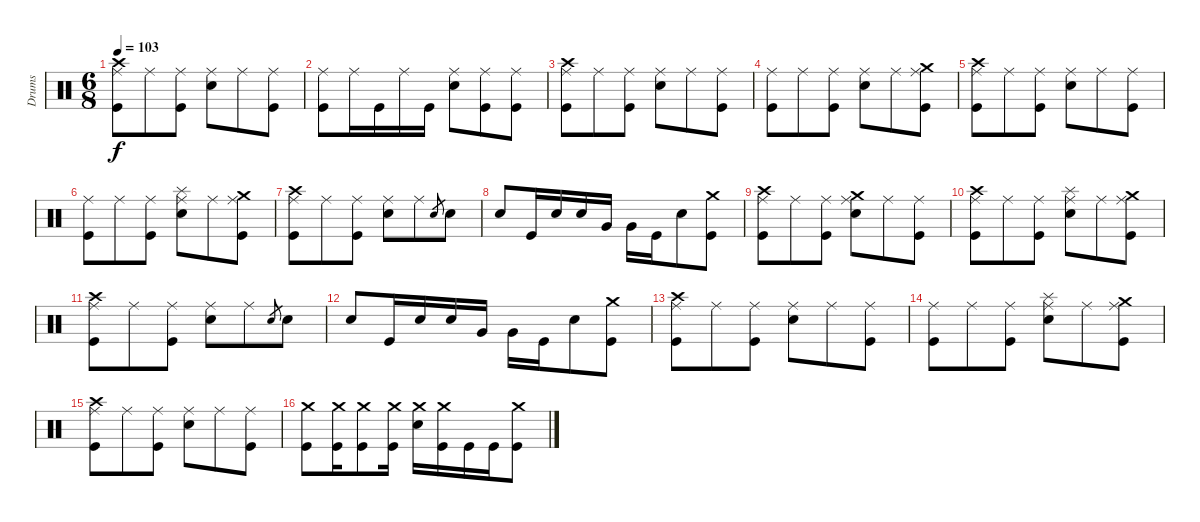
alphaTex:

\track ("Drums" "Drums") {instrument percussion}
\staff {score}
\articulation defaults
\ts (6 8)
\tempo 103
\clef neutral
\ks c
("Crash high (hit)" "Ride (middle)" "Kick (hit)").8{dy f} "Ride (middle)".8 ("Ride (middle)" "Kick (hit)").8 ("Ride (middle)" "Electric Snare (hit)").8 "Ride (middle)".8 ("Ride (middle)" "Kick (hit)").8 |
("Ride (middle)" "Kick (hit)").8 "Ride (middle)".16 "Kick (hit)".16 "Ride (middle)".16 "Kick (hit)".16 ("Ride (middle)" "Electric Snare (hit)").8 ("Ride (middle)" "Kick (hit)").8 ("Ride (middle)" "Kick (hit)").8 |
("Crash high (hit)" "Ride (middle)" "Kick (hit)").8 "Ride (middle)".8 ("Ride (middle)" "Kick (hit)").8 ("Ride (middle)" "Electric Snare (hit)").8 "Ride (middle)".8 ("Ride (middle)" "Kick (hit)").8 |
("Ride (middle)" "Kick (hit)").8 "Ride (middle)".8 ("Ride (middle)" "Kick (hit)").8 ("Ride (middle)" "Electric Snare (hit)").8 "Ride (middle)".8 ("Crash medium (hit)" "Ride (middle)" "Kick (hit)").8 |
("Crash high (hit)" "Ride (middle)" "Kick (hit)").8 "Ride (middle)".8 ("Ride (middle)" "Kick (hit)").8 ("Ride (middle)" "Electric Snare (hit)").8 "Ride (middle)".8 ("Ride (middle)" "Kick (hit)").8 |
("Ride (middle)" "Kick (hit)").8 "Ride (middle)".8 ("Ride (middle)" "Kick (hit)").8 ("Splash (hit)" "Ride (middle)" "Electric Snare (hit)").8 "Ride (middle)".8 ("Crash medium (hit)" "Ride (middle)" "Kick (hit)").8 |
("Crash high (hit)" "Ride (middle)" "Kick (hit)").8 "Ride (middle)".8 ("Ride (middle)" "Kick (hit)").8 ("Ride (middle)" "Electric Snare (hit)").8 "Ride (middle)".8 "Electric Snare (hit)".8{gr} "Electric Snare (hit)".8 |
"Electric Snare (hit)".8 "Kick (hit)".16 "Electric Snare (hit)".16 "Electric Snare (hit)".16 "Very Low Tom (hit)".16 "Very Low Tom (hit)".16 "Kick (hit)".16 "Electric Snare (hit)".8 ("Crash medium (hit)" "Kick (hit)").8 |
("Crash high (hit)" "Ride (middle)" "Kick (hit)").8 "Ride (middle)".8 ("Ride (middle)" "Kick (hit)").8 ("Crash medium (hit)" "Ride (middle)" "Electric Snare (hit)").8 "Ride (middle)".8 ("Ride (middle)" "Kick (hit)").8 |
("Crash high (hit)" "Ride (middle)" "Kick (hit)").8 "Ride (middle)".8 ("Ride (middle)" "Kick (hit)").8 ("Splash (hit)" "Ride (middle)" "Electric Snare (hit)").8 "Ride (middle)".8 ("Crash medium (hit)" "Ride (middle)" "Kick (hit)").8 |
("Crash high (hit)" "Ride (middle)" "Kick (hit)").8 "Ride (middle)".8 ("Ride (middle)" "Kick (hit)").8 ("Ride (middle)" "Electric Snare (hit)").8 "Ride (middle)".8 "Electric Snare (hit)".8{gr} "Electric Snare (hit)".8 |
"Electric Snare (hit)".8 "Kick (hit)".16 "Electric Snare (hit)".16 "Electric Snare (hit)".16 "Very Low Tom (hit)".16 "Very Low Tom (hit)".16 "Kick (hit)".16 "Electric Snare (hit)".8 ("Crash medium (hit)" "Kick (hit)").8 |
("Crash high (hit)" "Ride (middle)" "Kick (hit)").8 "Ride (middle)".8 ("Ride (middle)" "Kick (hit)").8 ("Ride (middle)" "Electric Snare (hit)").8 "Ride (middle)".8 ("Ride (middle)" "Kick (hit)").8 |
("Ride (middle)" "Kick (hit)").8 "Ride (middle)".8 ("Ride (middle)" "Kick (hit)").8 ("Splash (hit)" "Ride (middle)" "Electric Snare (hit)").8 "Ride (middle)".8 ("Crash medium (hit)" "Ride (middle)" "Kick (hit)").8 |
("Crash high (hit)" "Ride (middle)" "Kick (hit)").8 "Ride (middle)".8 ("Ride (middle)" "Kick (hit)").8 ("Ride (middle)" "Electric Snare (hit)").8 "Ride (middle)".8 ("Ride (middle)" "Kick (hit)").8 |
("Crash medium (hit)" "Kick (hit)").8 ("Crash medium (hit)" "Kick (hit)").16 ("Crash medium (hit)" "Kick (hit)").8 ("Crash medium (hit)" "Kick (hit)").16 ("Crash medium (hit)" "Electric Snare (hit)").16 ("Crash medium (hit)" "Kick (hit)").16 "Kick (hit)".16 "Kick (hit)".16 ("Crash medium (hit)" "Kick (hit)").8
